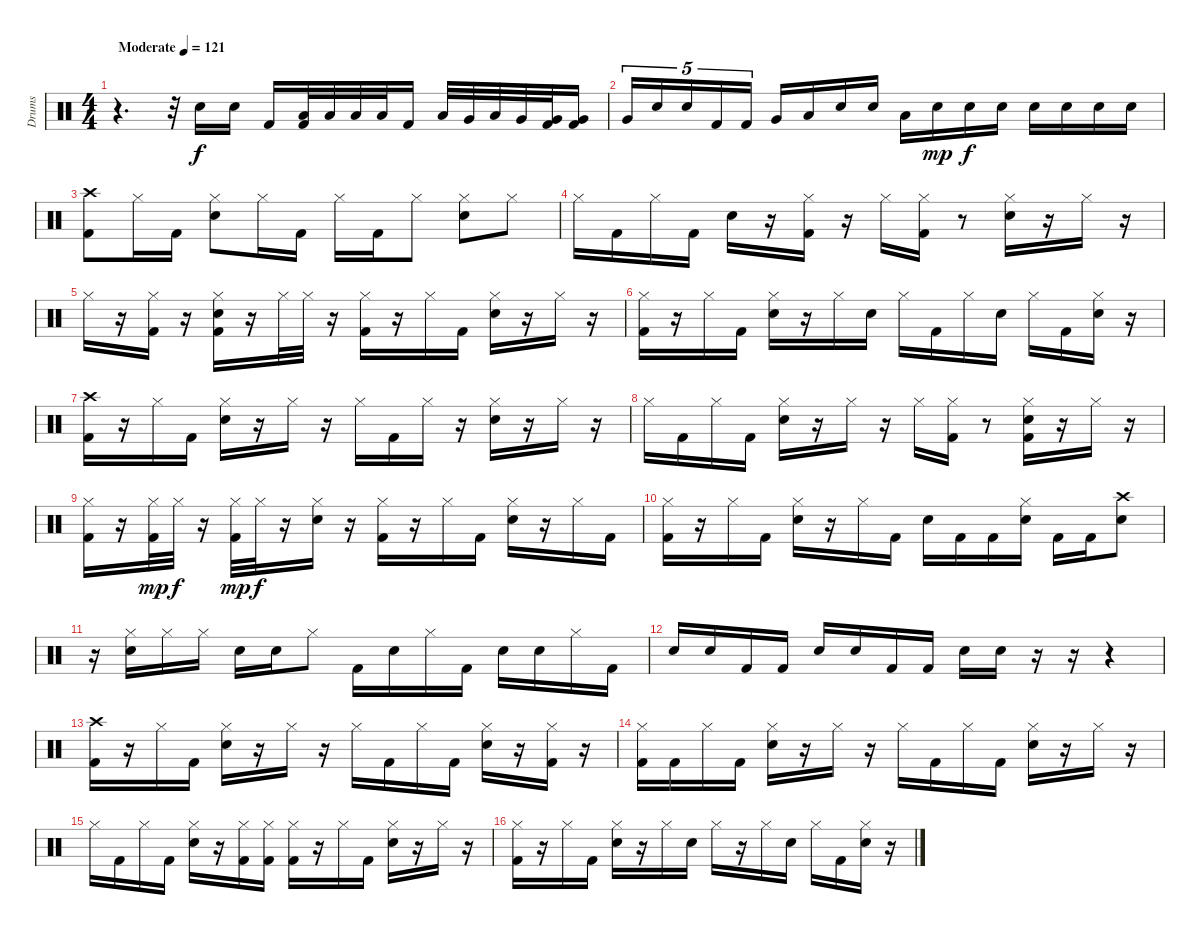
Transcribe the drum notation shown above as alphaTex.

\track ("Drums" "Drums") {instrument percussion}
\staff {score}
\articulation defaults
\ts (4 4)
\tempo (121 "Moderate")
\clef neutral
\ks c
r.4{d dy f} r.32 "Snare (hit) 2".16 "Snare (hit) 2".16 "Kick (hit) 2".16 ("Low Tom (hit)" "Kick (hit) 2").32 "Low Tom (hit)".32 "Low Tom (hit)".32 "Low Tom (hit)".32 "Kick (hit) 2".16 "Low Floor Tom (hit)".32 "Very Low Tom (hit)".32 "Low Floor Tom (hit)".32 "Very Low Tom (hit)".32 ("Very Low Tom (hit)" "Kick (hit) 2").32 ("Very Low Tom (hit)" "Kick (hit) 2").16 |
"Very Low Tom (hit)".16{tu (5 4)} "Snare (hit) 2".16{tu (5 4)} "Snare (hit) 2".16{tu (5 4)} "Kick (hit) 2".16{tu (5 4)} "Kick (hit) 2".16{tu (5 4)} "Very Low Tom (hit)".16 "Low Tom (hit)".16 "Snare (hit) 2".16 "Snare (hit) 2".16 "Low Tom (hit)".16 "Snare (hit) 2".16{dy mp} "Snare (hit) 2".16{dy f} "Snare (hit) 2".16 "Snare (hit) 2".16 "Snare (hit) 2".16 "Snare (hit) 2".16 "Snare (hit) 2".16 |
("Crash high (hit)" "Kick (hit) 2").8 "Hi-Hat (closed)".16 "Kick (hit) 2".16 ("Hi-Hat (closed)" "Snare (hit) 2").8 "Hi-Hat (closed)".16 "Kick (hit) 2".16 "Hi-Hat (closed)".16 "Kick (hit) 2".16 "Hi-Hat (closed)".8 ("Hi-Hat (closed)" "Snare (hit) 2").8 "Hi-Hat (closed)".8 |
"Hi-Hat (closed)".16 "Kick (hit) 2".16 "Hi-Hat (closed)".16 "Kick (hit) 2".16 "Snare (hit) 2".16 r.16 ("Hi-Hat (closed)" "Kick (hit) 2").16 r.16 "Hi-Hat (closed)".16 ("Hi-Hat (closed)" "Kick (hit) 2").16 r.8 ("Hi-Hat (closed)" "Snare (hit) 2").16 r.16 "Hi-Hat (closed)".16 r.16 |
"Hi-Hat (closed)".16 r.16 ("Hi-Hat (closed)" "Kick (hit) 2").16 r.16 ("Hi-Hat (closed)" "Snare (hit) 2" "Kick (hit) 2").16 r.16 "Hi-Hat (closed)".32 "Hi-Hat (closed)".32 r.16 ("Hi-Hat (closed)" "Kick (hit) 2").16 r.16 "Hi-Hat (closed)".16 "Kick (hit) 2".16 ("Hi-Hat (closed)" "Snare (hit) 2").16 r.16 "Hi-Hat (closed)".16 r.16 |
("Hi-Hat (closed)" "Kick (hit) 2").16 r.16 "Hi-Hat (closed)".16 "Kick (hit) 2".16 ("Hi-Hat (closed)" "Snare (hit) 2").16 r.16 "Hi-Hat (closed)".16 "Snare (hit) 2".16 "Hi-Hat (closed)".16 "Kick (hit) 2".16 "Hi-Hat (closed)".16 "Snare (hit) 2".16 "Hi-Hat (closed)".16 "Kick (hit) 2".16 ("Hi-Hat (closed)" "Snare (hit) 2").16 r.16 |
("Crash high (hit)" "Kick (hit) 2").16 r.16 "Hi-Hat (closed)".16 "Kick (hit) 2".16 ("Hi-Hat (closed)" "Snare (hit) 2").16 r.16 "Hi-Hat (closed)".16 r.16 "Hi-Hat (closed)".16 "Kick (hit) 2".16 "Hi-Hat (closed)".16 r.16 ("Hi-Hat (closed)" "Snare (hit) 2").16 r.16 "Hi-Hat (closed)".16 r.16 |
"Hi-Hat (closed)".16 "Kick (hit) 2".16 "Hi-Hat (closed)".16 "Kick (hit) 2".16 ("Hi-Hat (closed)" "Snare (hit) 2").16 r.16 "Hi-Hat (closed)".16 r.16 "Hi-Hat (closed)".16 ("Hi-Hat (closed)" "Kick (hit) 2").16 r.8 ("Hi-Hat (closed)" "Snare (hit) 2" "Kick (hit) 2").16 r.16 "Hi-Hat (closed)".16 r.16 |
("Hi-Hat (closed)" "Kick (hit) 2").16 r.16 ("Hi-Hat (closed)" "Kick (hit) 2").32{dy mp} "Hi-Hat (closed)".32{dy f} r.16 ("Hi-Hat (closed)" "Kick (hit) 2").32{dy mp} "Hi-Hat (closed)".32{dy f} r.16 ("Hi-Hat (closed)" "Snare (hit) 2").16 r.16 ("Hi-Hat (closed)" "Kick (hit) 2").16 r.16 "Hi-Hat (closed)".16 "Kick (hit) 2".16 ("Hi-Hat (closed)" "Snare (hit) 2").16 r.16 "Hi-Hat (closed)".16 "Kick (hit) 2".16 |
("Hi-Hat (closed)" "Kick (hit) 2").16 r.16 "Hi-Hat (closed)".16 "Kick (hit) 2".16 ("Hi-Hat (closed)" "Snare (hit) 2").16 r.16 "Hi-Hat (closed)".16 "Kick (hit) 2".16 "Snare (hit) 2".16 "Kick (hit) 2".16 "Kick (hit) 2".16 ("Hi-Hat (closed)" "Snare (hit) 2").16 "Kick (hit) 2".16 "Kick (hit) 2".16 ("Crash high (hit)" "Snare (hit) 2").8 |
r.16 ("Hi-Hat (closed)" "Snare (hit) 2").16 "Hi-Hat (closed)".16 "Hi-Hat (closed)".16 "Snare (hit) 2".16 "Snare (hit) 2".16 "Hi-Hat (closed)".8 "Kick (hit) 2".16 "Snare (hit) 2".16 "Hi-Hat (closed)".16 "Kick (hit) 2".16 "Snare (hit) 2".16 "Snare (hit) 2".16 "Hi-Hat (closed)".16 "Kick (hit) 2".16 |
"Snare (hit) 2".16 "Snare (hit) 2".16 "Kick (hit) 2".16 "Kick (hit) 2".16 "Snare (hit) 2".16 "Snare (hit) 2".16 "Kick (hit) 2".16 "Kick (hit) 2".16 "Snare (hit) 2".16 "Snare (hit) 2".16 r.16 r.16 r.4 |
("Crash high (hit)" "Kick (hit) 2").16 r.16 "Hi-Hat (closed)".16 "Kick (hit) 2".16 ("Hi-Hat (closed)" "Snare (hit) 2").16 r.16 "Hi-Hat (closed)".16 r.16 "Hi-Hat (closed)".16 "Kick (hit) 2".16 "Hi-Hat (closed)".16 "Kick (hit) 2".16 ("Hi-Hat (closed)" "Snare (hit) 2").16 r.16 ("Hi-Hat (closed)" "Kick (hit) 2").16 r.16 |
("Hi-Hat (closed)" "Kick (hit) 2").16 "Kick (hit) 2".16 "Hi-Hat (closed)".16 "Kick (hit) 2".16 ("Hi-Hat (closed)" "Snare (hit) 2").16 r.16 "Hi-Hat (closed)".16 r.16 "Hi-Hat (closed)".16 "Kick (hit) 2".16 "Hi-Hat (closed)".16 "Kick (hit) 2".16 ("Hi-Hat (closed)" "Snare (hit) 2").16 r.16 "Hi-Hat (closed)".16 r.16 |
"Hi-Hat (closed)".16 "Kick (hit) 2".16 "Hi-Hat (closed)".16 "Kick (hit) 2".16 ("Hi-Hat (closed)" "Snare (hit) 2").16 r.16 ("Hi-Hat (closed)" "Kick (hit) 2").16 ("Hi-Hat (closed)" "Kick (hit) 2").16 ("Hi-Hat (closed)" "Kick (hit) 2").16 r.16 "Hi-Hat (closed)".16 "Kick (hit) 2".16 ("Hi-Hat (closed)" "Snare (hit) 2").16 r.16 "Hi-Hat (closed)".16 r.16 |
("Hi-Hat (closed)" "Kick (hit) 2").16 r.16 "Hi-Hat (closed)".16 "Kick (hit) 2".16 ("Hi-Hat (closed)" "Snare (hit) 2").16 r.16 "Hi-Hat (closed)".16 "Snare (hit) 2".16 "Hi-Hat (closed)".16 r.16 "Hi-Hat (closed)".16 "Snare (hit) 2".16 "Hi-Hat (closed)".16 "Kick (hit) 2".16 ("Hi-Hat (closed)" "Snare (hit) 2").16 r.16
